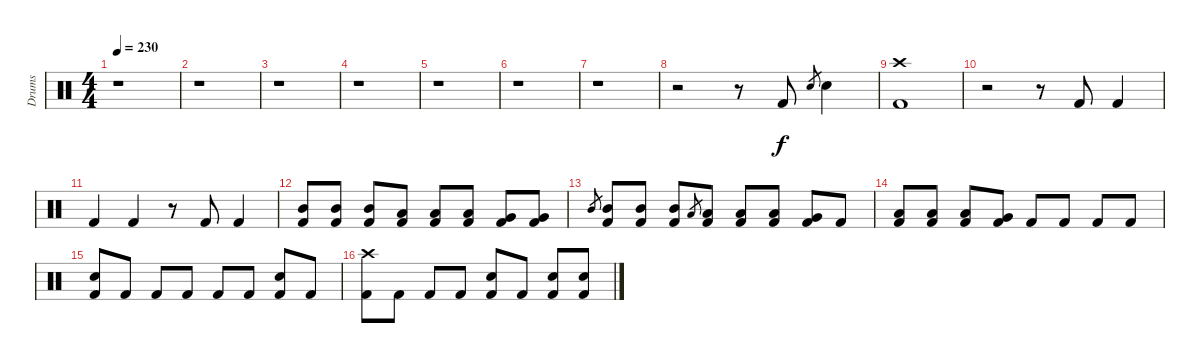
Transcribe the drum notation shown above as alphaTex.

\track ("Drums" "Drums") {instrument percussion}
\staff {score}
\articulation defaults
\ts (4 4)
\tempo 230
\clef neutral
\ks c
r.1{dy f} |
r.1 |
r.1 |
r.1 |
r.1 |
r.1 |
r.1 |
r.2 r.8 "Kick (hit) 2".8 "Electric Snare (hit)".8{gr} "Electric Snare (hit)".4 |
("Crash high (hit)" "Kick (hit) 2").1 |
r.2 r.8 "Kick (hit) 2".8 "Kick (hit) 2".4 |
"Kick (hit) 2".4 "Kick (hit) 2".4 r.8 "Kick (hit) 2".8 "Kick (hit) 2".4 |
("Mid Tom (hit)" "Kick (hit) 2").8 ("Mid Tom (hit)" "Kick (hit) 2").8 ("Mid Tom (hit)" "Kick (hit) 2").8 ("Low Tom (hit)" "Kick (hit) 2").8 ("Low Tom (hit)" "Kick (hit) 2").8 ("Low Tom (hit)" "Kick (hit) 2").8 ("Very Low Tom (hit)" "Kick (hit) 2").8 ("Very Low Tom (hit)" "Kick (hit) 2").8 |
"Mid Tom (hit)".8{gr} ("Mid Tom (hit)" "Kick (hit) 2").8 ("Mid Tom (hit)" "Kick (hit) 2").8 ("Mid Tom (hit)" "Kick (hit) 2").8 "Low Tom (hit)".8{gr} ("Low Tom (hit)" "Kick (hit) 2").8 ("Low Tom (hit)" "Kick (hit) 2").8 ("Low Tom (hit)" "Kick (hit) 2").8 ("Very Low Tom (hit)" "Kick (hit) 2").8 "Kick (hit) 2".8 |
("Low Tom (hit)" "Kick (hit) 2").8 ("Low Tom (hit)" "Kick (hit) 2").8 ("Low Tom (hit)" "Kick (hit) 2").8 ("Very Low Tom (hit)" "Kick (hit) 2").8 "Kick (hit) 2".8 "Kick (hit) 2".8 "Kick (hit) 2".8 "Kick (hit) 2".8 |
("Electric Snare (hit)" "Kick (hit) 2").8 "Kick (hit) 2".8 "Kick (hit) 2".8 "Kick (hit) 2".8 "Kick (hit) 2".8 "Kick (hit) 2".8 ("Electric Snare (hit)" "Kick (hit) 2").8 "Kick (hit) 2".8 |
("Crash high (hit)" "Kick (hit) 2").8 "Kick (hit) 2".8 "Kick (hit) 2".8 "Kick (hit) 2".8 ("Electric Snare (hit)" "Kick (hit) 2").8 "Kick (hit) 2".8 ("Electric Snare (hit)" "Kick (hit) 2").8 ("Electric Snare (hit)" "Kick (hit) 2").8
